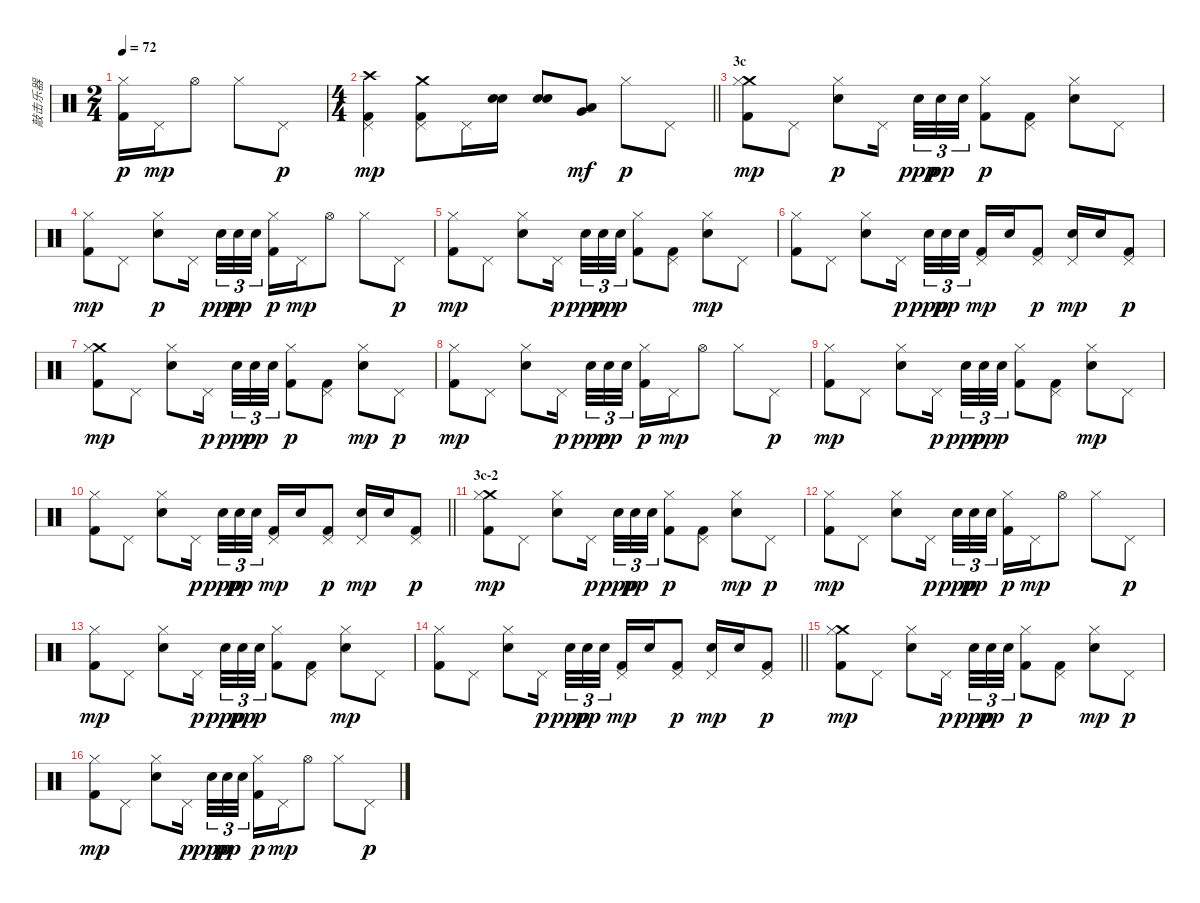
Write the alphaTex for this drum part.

\track ("敲击乐器" "敲击乐器") {instrument percussion}
\staff {score}
\articulation defaults
\ts (2 4)
\tempo 72
\clef neutral
\ks c
("Hi-Hat (closed)" "Kick (hit) 2").16{dy p} "Pedal Hi-Hat (hit)".16{dy mp} "Hi-Hat (open)".8 "Hi-Hat (closed)".8 "Pedal Hi-Hat (hit)".8{dy p} |
\ts (4 4)
\barLineRight lightlight
("Crash high (hit)" "Pedal Hi-Hat (hit)" "Kick (hit) 2").4{dy mp} ("Crash medium (hit)" "Pedal Hi-Hat (hit)" "Kick (hit) 2").8 "Pedal Hi-Hat (hit)".16 ("Electric Snare (hit)" "Electric Snare (hit)").16 ("Electric Snare (hit)" "Electric Snare (hit)").8 ("Low Tom (hit)" "Very Low Tom (hit)").8{dy mf} "Hi-Hat (closed)".8{dy p} "Pedal Hi-Hat (hit)".8 |
\section ("" "3c")
("Crash medium (hit)" "Hi-Hat (closed)" "Kick (hit) 2").8{dy mp} "Pedal Hi-Hat (hit)".8 ("Hi-Hat (closed)" "Electric Snare (hit)").8{dy p} "Pedal Hi-Hat (hit)".16{beam splitsecondary} "Electric Snare (hit)".32{tu (3 2) dy ppp} "Electric Snare (hit)".32{tu (3 2) dy pp} "Electric Snare (hit)".32{tu (3 2)} ("Hi-Hat (closed)" "Kick (hit) 2").8{dy p} ("Pedal Hi-Hat (hit)" "Kick (hit) 2").8 ("Hi-Hat (closed)" "Electric Snare (hit)").8 "Pedal Hi-Hat (hit)".8 |
("Hi-Hat (closed)" "Kick (hit) 2").8{dy mp} "Pedal Hi-Hat (hit)".8 ("Hi-Hat (closed)" "Electric Snare (hit)").8{dy p} "Pedal Hi-Hat (hit)".16{beam splitsecondary} "Electric Snare (hit)".32{tu (3 2) dy ppp} "Electric Snare (hit)".32{tu (3 2) dy pp} "Electric Snare (hit)".32{tu (3 2)} ("Hi-Hat (closed)" "Kick (hit) 2").16{dy p} "Pedal Hi-Hat (hit)".16{dy mp} "Hi-Hat (open)".8 "Hi-Hat (closed)".8 "Pedal Hi-Hat (hit)".8{dy p} |
("Hi-Hat (closed)" "Kick (hit) 2").8{dy mp} "Pedal Hi-Hat (hit)".8 ("Hi-Hat (closed)" "Electric Snare (hit)").8 "Pedal Hi-Hat (hit)".16{dy p beam splitsecondary} "Electric Snare (hit)".32{tu (3 2) dy ppp} "Electric Snare (hit)".32{tu (3 2) dy pp} "Electric Snare (hit)".32{tu (3 2) dy p} ("Hi-Hat (closed)" "Kick (hit) 2").8 ("Pedal Hi-Hat (hit)" "Kick (hit) 2").8 ("Hi-Hat (closed)" "Electric Snare (hit)").8{dy mp} "Pedal Hi-Hat (hit)".8 |
("Hi-Hat (closed)" "Kick (hit) 2").8 "Pedal Hi-Hat (hit)".8 ("Hi-Hat (closed)" "Electric Snare (hit)").8 "Pedal Hi-Hat (hit)".16{dy p beam splitsecondary} "Electric Snare (hit)".32{tu (3 2) dy ppp} "Electric Snare (hit)".32{tu (3 2) dy pp} "Electric Snare (hit)".32{tu (3 2)} ("Pedal Hi-Hat (hit)" "Kick (hit) 2").16{dy mp} "Electric Snare (hit)".16 ("Pedal Hi-Hat (hit)" "Kick (hit) 2").8{dy p} ("Pedal Hi-Hat (hit)" "Electric Snare (hit)").16{dy mp} "Electric Snare (hit)".16 ("Pedal Hi-Hat (hit)" "Kick (hit) 2").8{dy p} |
("Crash medium (hit)" "Hi-Hat (closed)" "Kick (hit) 2").8{dy mp} "Pedal Hi-Hat (hit)".8 ("Hi-Hat (closed)" "Electric Snare (hit)").8 "Pedal Hi-Hat (hit)".16{dy p beam splitsecondary} "Electric Snare (hit)".32{tu (3 2) dy ppp} "Electric Snare (hit)".32{tu (3 2) dy pp} "Electric Snare (hit)".32{tu (3 2)} ("Hi-Hat (closed)" "Kick (hit) 2").8{dy p} ("Pedal Hi-Hat (hit)" "Kick (hit) 2").8 ("Hi-Hat (closed)" "Electric Snare (hit)").8{dy mp} "Pedal Hi-Hat (hit)".8{dy p} |
("Hi-Hat (closed)" "Kick (hit) 2").8{dy mp} "Pedal Hi-Hat (hit)".8 ("Hi-Hat (closed)" "Electric Snare (hit)").8 "Pedal Hi-Hat (hit)".16{dy p beam splitsecondary} "Electric Snare (hit)".32{tu (3 2) dy ppp} "Electric Snare (hit)".32{tu (3 2) dy pp} "Electric Snare (hit)".32{tu (3 2)} ("Hi-Hat (closed)" "Kick (hit) 2").16{dy p} "Pedal Hi-Hat (hit)".16{dy mp} "Hi-Hat (open)".8 "Hi-Hat (closed)".8 "Pedal Hi-Hat (hit)".8{dy p} |
("Hi-Hat (closed)" "Kick (hit) 2").8{dy mp} "Pedal Hi-Hat (hit)".8 ("Hi-Hat (closed)" "Electric Snare (hit)").8 "Pedal Hi-Hat (hit)".16{dy p beam splitsecondary} "Electric Snare (hit)".32{tu (3 2) dy ppp} "Electric Snare (hit)".32{tu (3 2) dy pp} "Electric Snare (hit)".32{tu (3 2) dy p} ("Hi-Hat (closed)" "Kick (hit) 2").8 ("Pedal Hi-Hat (hit)" "Kick (hit) 2").8 ("Hi-Hat (closed)" "Electric Snare (hit)").8{dy mp} "Pedal Hi-Hat (hit)".8 |
\barLineRight lightlight
("Hi-Hat (closed)" "Kick (hit) 2").8 "Pedal Hi-Hat (hit)".8 ("Hi-Hat (closed)" "Electric Snare (hit)").8 "Pedal Hi-Hat (hit)".16{dy p beam splitsecondary} "Electric Snare (hit)".32{tu (3 2) dy ppp} "Electric Snare (hit)".32{tu (3 2) dy pp} "Electric Snare (hit)".32{tu (3 2)} ("Pedal Hi-Hat (hit)" "Kick (hit) 2").16{dy mp} "Electric Snare (hit)".16 ("Pedal Hi-Hat (hit)" "Kick (hit) 2").8{dy p} ("Pedal Hi-Hat (hit)" "Electric Snare (hit)").16{dy mp} "Electric Snare (hit)".16 ("Pedal Hi-Hat (hit)" "Kick (hit) 2").8{dy p} |
\section ("" "3c-2")
("Crash medium (hit)" "Hi-Hat (closed)" "Kick (hit) 2").8{dy mp} "Pedal Hi-Hat (hit)".8 ("Hi-Hat (closed)" "Electric Snare (hit)").8 "Pedal Hi-Hat (hit)".16{dy p beam splitsecondary} "Electric Snare (hit)".32{tu (3 2) dy ppp} "Electric Snare (hit)".32{tu (3 2) dy pp} "Electric Snare (hit)".32{tu (3 2)} ("Hi-Hat (closed)" "Kick (hit) 2").8{dy p} ("Pedal Hi-Hat (hit)" "Kick (hit) 2").8 ("Hi-Hat (closed)" "Electric Snare (hit)").8{dy mp} "Pedal Hi-Hat (hit)".8{dy p} |
("Hi-Hat (closed)" "Kick (hit) 2").8{dy mp} "Pedal Hi-Hat (hit)".8 ("Hi-Hat (closed)" "Electric Snare (hit)").8 "Pedal Hi-Hat (hit)".16{dy p beam splitsecondary} "Electric Snare (hit)".32{tu (3 2) dy ppp} "Electric Snare (hit)".32{tu (3 2) dy pp} "Electric Snare (hit)".32{tu (3 2)} ("Hi-Hat (closed)" "Kick (hit) 2").16{dy p} "Pedal Hi-Hat (hit)".16{dy mp} "Hi-Hat (open)".8 "Hi-Hat (closed)".8 "Pedal Hi-Hat (hit)".8{dy p} |
("Hi-Hat (closed)" "Kick (hit) 2").8{dy mp} "Pedal Hi-Hat (hit)".8 ("Hi-Hat (closed)" "Electric Snare (hit)").8 "Pedal Hi-Hat (hit)".16{dy p beam splitsecondary} "Electric Snare (hit)".32{tu (3 2) dy ppp} "Electric Snare (hit)".32{tu (3 2) dy pp} "Electric Snare (hit)".32{tu (3 2) dy p} ("Hi-Hat (closed)" "Kick (hit) 2").8 ("Pedal Hi-Hat (hit)" "Kick (hit) 2").8 ("Hi-Hat (closed)" "Electric Snare (hit)").8{dy mp} "Pedal Hi-Hat (hit)".8 |
\barLineRight lightlight
("Hi-Hat (closed)" "Kick (hit) 2").8 "Pedal Hi-Hat (hit)".8 ("Hi-Hat (closed)" "Electric Snare (hit)").8 "Pedal Hi-Hat (hit)".16{dy p beam splitsecondary} "Electric Snare (hit)".32{tu (3 2) dy ppp} "Electric Snare (hit)".32{tu (3 2) dy pp} "Electric Snare (hit)".32{tu (3 2)} ("Pedal Hi-Hat (hit)" "Kick (hit) 2").16{dy mp} "Electric Snare (hit)".16 ("Pedal Hi-Hat (hit)" "Kick (hit) 2").8{dy p} ("Pedal Hi-Hat (hit)" "Electric Snare (hit)").16{dy mp} "Electric Snare (hit)".16 ("Pedal Hi-Hat (hit)" "Kick (hit) 2").8{dy p} |
("Crash medium (hit)" "Hi-Hat (closed)" "Kick (hit) 2").8{dy mp} "Pedal Hi-Hat (hit)".8 ("Hi-Hat (closed)" "Electric Snare (hit)").8 "Pedal Hi-Hat (hit)".16{dy p beam splitsecondary} "Electric Snare (hit)".32{tu (3 2) dy ppp} "Electric Snare (hit)".32{tu (3 2) dy pp} "Electric Snare (hit)".32{tu (3 2)} ("Hi-Hat (closed)" "Kick (hit) 2").8{dy p} ("Pedal Hi-Hat (hit)" "Kick (hit) 2").8 ("Hi-Hat (closed)" "Electric Snare (hit)").8{dy mp} "Pedal Hi-Hat (hit)".8{dy p} |
("Hi-Hat (closed)" "Kick (hit) 2").8{dy mp} "Pedal Hi-Hat (hit)".8 ("Hi-Hat (closed)" "Electric Snare (hit)").8 "Pedal Hi-Hat (hit)".16{dy p beam splitsecondary} "Electric Snare (hit)".32{tu (3 2) dy ppp} "Electric Snare (hit)".32{tu (3 2) dy pp} "Electric Snare (hit)".32{tu (3 2)} ("Hi-Hat (closed)" "Kick (hit) 2").16{dy p} "Pedal Hi-Hat (hit)".16{dy mp} "Hi-Hat (open)".8 "Hi-Hat (closed)".8 "Pedal Hi-Hat (hit)".8{dy p}
